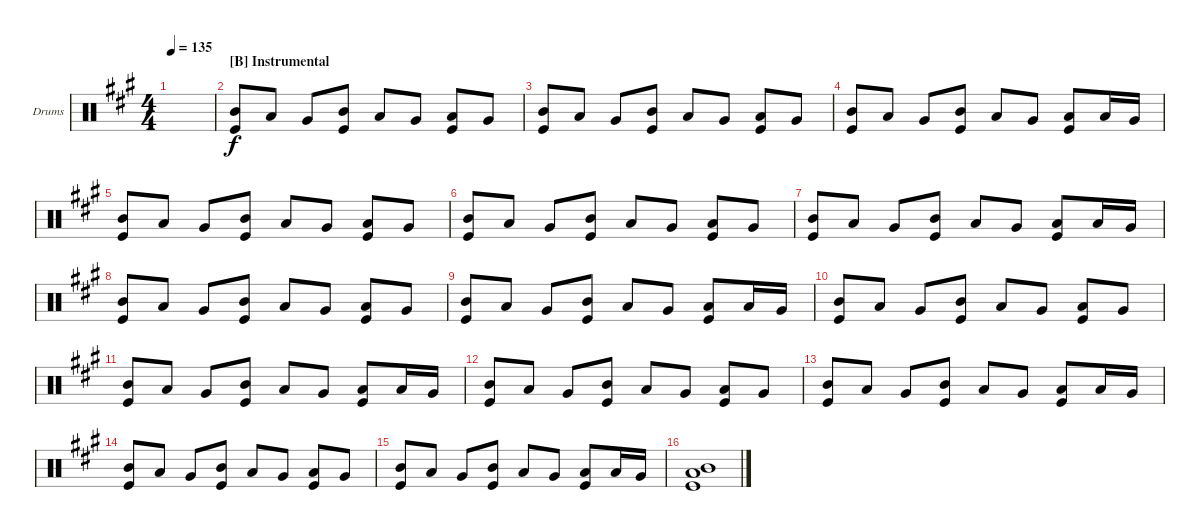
\defaultSystemsLayout 4
\bracketExtendMode groupsimilarinstruments
\firstSystemTrackNameOrientation horizontal
\otherSystemsTrackNameOrientation horizontal
\track ("Drums" "Drums") {instrument percussion}
\staff {score}
\articulation defaults
\ts (4 4)
\tempo 135
\clef neutral
\scale
0.333333
\ks f#minor
|
\section ("B" "Instrumental")
\scale
0.333333 ("Kick (hit)" "Mid Tom (hit)").8 "Low Tom (hit)".8 "Very Low Tom (hit)".8 ("Kick (hit)" "Mid Tom (hit)").8 "Low Tom (hit)".8 "Very Low Tom (hit)".8 ("Kick (hit)" "Low Tom (hit)").8 "Very Low Tom (hit)".8 |
\scale
0.333333 ("Kick (hit)" "Mid Tom (hit)").8 "Low Tom (hit)".8 "Very Low Tom (hit)".8 ("Kick (hit)" "Mid Tom (hit)").8 "Low Tom (hit)".8 "Very Low Tom (hit)".8 ("Kick (hit)" "Low Tom (hit)").8 "Very Low Tom (hit)".8 |
\scale
0.333333 ("Kick (hit)" "Mid Tom (hit)").8 "Low Tom (hit)".8 "Very Low Tom (hit)".8 ("Kick (hit)" "Mid Tom (hit)").8 "Low Tom (hit)".8 "Very Low Tom (hit)".8 ("Kick (hit)" "Low Tom (hit)").8 "Low Tom (hit)".16 "Very Low Tom (hit)".16 |
\scale
0.333333 ("Kick (hit)" "Mid Tom (hit)").8 "Low Tom (hit)".8 "Very Low Tom (hit)".8 ("Kick (hit)" "Mid Tom (hit)").8 "Low Tom (hit)".8 "Very Low Tom (hit)".8 ("Kick (hit)" "Low Tom (hit)").8 "Very Low Tom (hit)".8 |
\scale
0.333333 ("Kick (hit)" "Mid Tom (hit)").8 "Low Tom (hit)".8 "Very Low Tom (hit)".8 ("Kick (hit)" "Mid Tom (hit)").8 "Low Tom (hit)".8 "Very Low Tom (hit)".8 ("Kick (hit)" "Low Tom (hit)").8 "Very Low Tom (hit)".8 |
\scale
0.333333 ("Kick (hit)" "Mid Tom (hit)").8 "Low Tom (hit)".8 "Very Low Tom (hit)".8 ("Kick (hit)" "Mid Tom (hit)").8 "Low Tom (hit)".8 "Very Low Tom (hit)".8 ("Kick (hit)" "Low Tom (hit)").8 "Low Tom (hit)".16 "Very Low Tom (hit)".16 |
\scale
0.333333 ("Kick (hit)" "Mid Tom (hit)").8 "Low Tom (hit)".8 "Very Low Tom (hit)".8 ("Kick (hit)" "Mid Tom (hit)").8 "Low Tom (hit)".8 "Very Low Tom (hit)".8 ("Kick (hit)" "Low Tom (hit)").8 "Very Low Tom (hit)".8 |
\scale
0.333333 ("Kick (hit)" "Mid Tom (hit)").8 "Low Tom (hit)".8 "Very Low Tom (hit)".8 ("Kick (hit)" "Mid Tom (hit)").8 "Low Tom (hit)".8 "Very Low Tom (hit)".8 ("Kick (hit)" "Low Tom (hit)").8 "Low Tom (hit)".16 "Very Low Tom (hit)".16 |
\scale
0.333333 ("Kick (hit)" "Mid Tom (hit)").8 "Low Tom (hit)".8 "Very Low Tom (hit)".8 ("Kick (hit)" "Mid Tom (hit)").8 "Low Tom (hit)".8 "Very Low Tom (hit)".8 ("Kick (hit)" "Low Tom (hit)").8 "Very Low Tom (hit)".8 |
\scale
0.333333 ("Kick (hit)" "Mid Tom (hit)").8 "Low Tom (hit)".8 "Very Low Tom (hit)".8 ("Kick (hit)" "Mid Tom (hit)").8 "Low Tom (hit)".8 "Very Low Tom (hit)".8 ("Kick (hit)" "Low Tom (hit)").8 "Low Tom (hit)".16 "Very Low Tom (hit)".16 |
\scale
0.333333 ("Kick (hit)" "Mid Tom (hit)").8 "Low Tom (hit)".8 "Very Low Tom (hit)".8 ("Kick (hit)" "Mid Tom (hit)").8 "Low Tom (hit)".8 "Very Low Tom (hit)".8 ("Kick (hit)" "Low Tom (hit)").8 "Very Low Tom (hit)".8 |
\scale
0.333333 ("Kick (hit)" "Mid Tom (hit)").8 "Low Tom (hit)".8 "Very Low Tom (hit)".8 ("Kick (hit)" "Mid Tom (hit)").8 "Low Tom (hit)".8 "Very Low Tom (hit)".8 ("Kick (hit)" "Low Tom (hit)").8 "Low Tom (hit)".16 "Very Low Tom (hit)".16 |
\scale
0.333333 ("Kick (hit)" "Mid Tom (hit)").8 "Low Tom (hit)".8 "Very Low Tom (hit)".8 ("Kick (hit)" "Mid Tom (hit)").8 "Low Tom (hit)".8 "Very Low Tom (hit)".8 ("Kick (hit)" "Low Tom (hit)").8 "Very Low Tom (hit)".8 |
\scale
0.333333 ("Kick (hit)" "Mid Tom (hit)").8 "Low Tom (hit)".8 "Very Low Tom (hit)".8 ("Kick (hit)" "Mid Tom (hit)").8 "Low Tom (hit)".8 "Very Low Tom (hit)".8 ("Kick (hit)" "Low Tom (hit)").8 "Low Tom (hit)".16 "Very Low Tom (hit)".16 |
\scale
0.333333 ("Kick (hit)" "Low Tom (hit)" "Mid Tom (hit)").1
